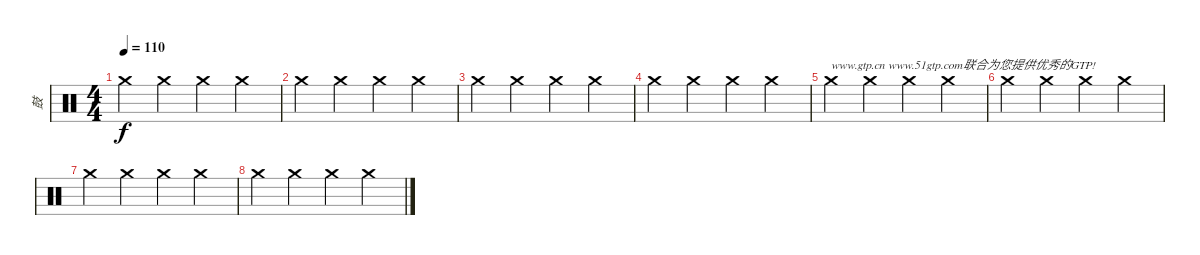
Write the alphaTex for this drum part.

\track ("鼓" "鼓") {instrument percussion}
\staff {score}
\articulation defaults
\ts (4 4)
\tempo 110
\clef neutral
\ks c "Crash medium (hit)".4{dy f} "Crash medium (hit)".4 "Crash medium (hit)".4 "Crash medium (hit)".4
|
"Crash medium (hit)".4 "Crash medium (hit)".4 "Crash medium (hit)".4 "Crash medium (hit)".4 |
"Crash medium (hit)".4 "Crash medium (hit)".4 "Crash medium (hit)".4 "Crash medium (hit)".4 |
"Crash medium (hit)".4 "Crash medium (hit)".4 "Crash medium (hit)".4 "Crash medium (hit)".4 |
"Crash medium (hit)".4{txt "www.gtp.cn www.51gtp.com联合为您提供优秀的GTP!"} "Crash medium (hit)".4 "Crash medium (hit)".4 "Crash medium (hit)".4 |
"Crash medium (hit)".4 "Crash medium (hit)".4 "Crash medium (hit)".4 "Crash medium (hit)".4 |
"Crash medium (hit)".4 "Crash medium (hit)".4 "Crash medium (hit)".4 "Crash medium (hit)".4 |
"Crash medium (hit)".4 "Crash medium (hit)".4 "Crash medium (hit)".4 "Crash medium (hit)".4
